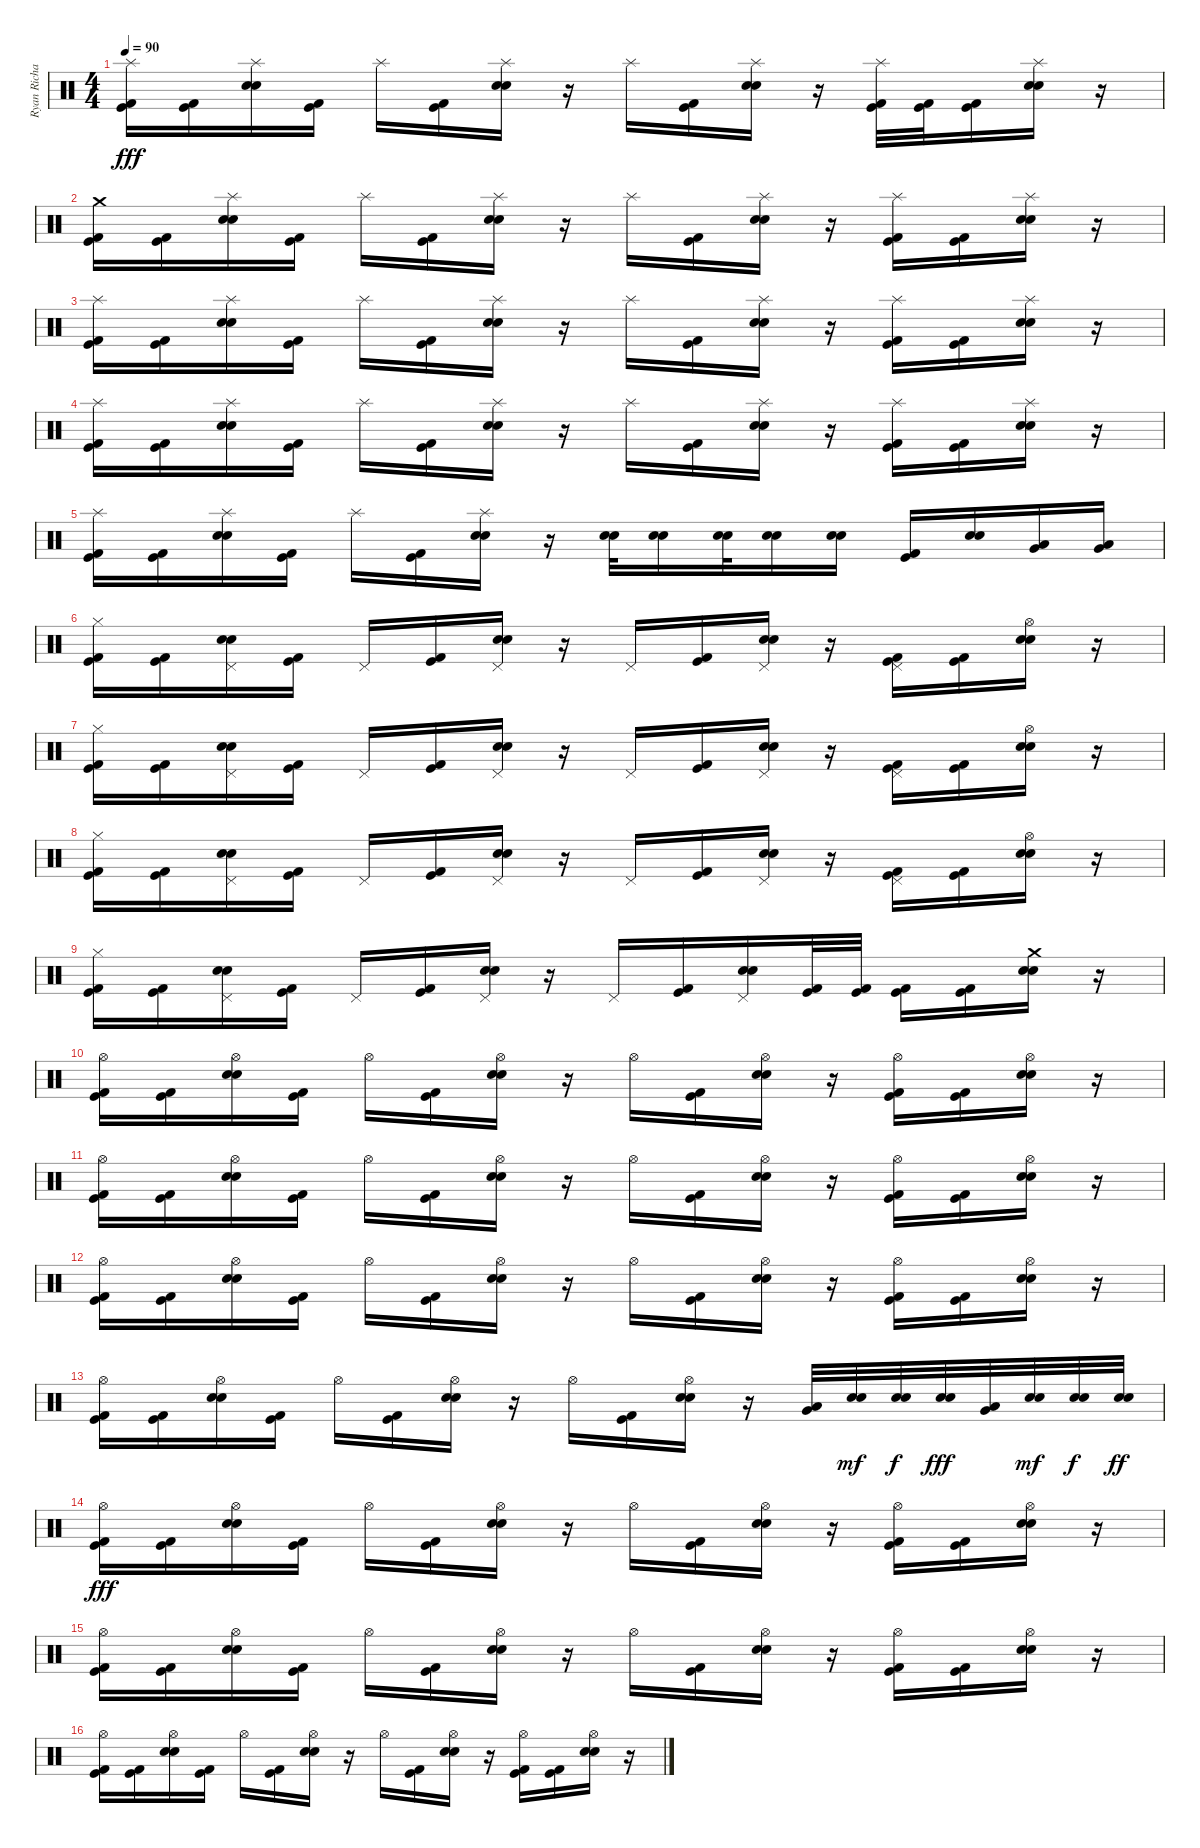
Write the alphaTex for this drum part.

\track ("Ryan Richards" "Ryan Richa") {instrument percussion}
\staff {score}
\articulation defaults
\ts (4 4)
\tempo 90
\clef neutral
\ks c
("Kick (hit)" "Splash (hit)" "Kick (hit) 2").16{dy fff} ("Kick (hit)" "Kick (hit) 2").16 ("Splash (hit)" "Snare (hit) 2" "Electric Snare (hit)").16 ("Kick (hit)" "Kick (hit) 2").16 "Splash (hit)".16 ("Kick (hit)" "Kick (hit) 2").16 ("Splash (hit)" "Snare (hit) 2" "Electric Snare (hit)").16 r.16 "Splash (hit)".16 ("Kick (hit)" "Kick (hit) 2").16 ("Splash (hit)" "Snare (hit) 2" "Electric Snare (hit)").16 r.16 ("Kick (hit)" "Splash (hit)" "Kick (hit) 2").32 ("Kick (hit)" "Kick (hit) 2").32 ("Kick (hit)" "Kick (hit) 2").16 ("Splash (hit)" "Snare (hit) 2" "Electric Snare (hit)").16 r.16 |
("Kick (hit)" "Crash medium (hit)" "Kick (hit) 2").16 ("Kick (hit)" "Kick (hit) 2").16 ("Splash (hit)" "Snare (hit) 2" "Electric Snare (hit)").16 ("Kick (hit)" "Kick (hit) 2").16 "Splash (hit)".16 ("Kick (hit)" "Kick (hit) 2").16 ("Splash (hit)" "Snare (hit) 2" "Electric Snare (hit)").16 r.16 "Splash (hit)".16 ("Kick (hit)" "Kick (hit) 2").16 ("Splash (hit)" "Snare (hit) 2" "Electric Snare (hit)").16 r.16 ("Kick (hit)" "Splash (hit)" "Kick (hit) 2").16 ("Kick (hit)" "Kick (hit) 2").16 ("Splash (hit)" "Snare (hit) 2" "Electric Snare (hit)").16 r.16 |
("Kick (hit)" "Splash (hit)" "Kick (hit) 2").16 ("Kick (hit)" "Kick (hit) 2").16 ("Splash (hit)" "Snare (hit) 2" "Electric Snare (hit)").16 ("Kick (hit)" "Kick (hit) 2").16 "Splash (hit)".16 ("Kick (hit)" "Kick (hit) 2").16 ("Splash (hit)" "Snare (hit) 2" "Electric Snare (hit)").16 r.16 "Splash (hit)".16 ("Kick (hit)" "Kick (hit) 2").16 ("Splash (hit)" "Snare (hit) 2" "Electric Snare (hit)").16 r.16 ("Kick (hit)" "Splash (hit)" "Kick (hit) 2").16 ("Kick (hit)" "Kick (hit) 2").16 ("Splash (hit)" "Snare (hit) 2" "Electric Snare (hit)").16 r.16 |
("Kick (hit)" "Splash (hit)" "Kick (hit) 2").16 ("Kick (hit)" "Kick (hit) 2").16 ("Splash (hit)" "Snare (hit) 2" "Electric Snare (hit)").16 ("Kick (hit)" "Kick (hit) 2").16 "Splash (hit)".16 ("Kick (hit)" "Kick (hit) 2").16 ("Splash (hit)" "Snare (hit) 2" "Electric Snare (hit)").16 r.16 "Splash (hit)".16 ("Kick (hit)" "Kick (hit) 2").16 ("Splash (hit)" "Snare (hit) 2" "Electric Snare (hit)").16 r.16 ("Kick (hit)" "Splash (hit)" "Kick (hit) 2").16 ("Kick (hit)" "Kick (hit) 2").16 ("Splash (hit)" "Snare (hit) 2" "Electric Snare (hit)").16 r.16 |
("Kick (hit)" "Splash (hit)" "Kick (hit) 2").16 ("Kick (hit)" "Kick (hit) 2").16 ("Splash (hit)" "Snare (hit) 2" "Electric Snare (hit)").16 ("Kick (hit)" "Kick (hit) 2").16 "Splash (hit)".16 ("Kick (hit)" "Kick (hit) 2").16 ("Splash (hit)" "Snare (hit) 2" "Electric Snare (hit)").16 r.16 ("Snare (hit) 2" "Electric Snare (hit)").32 ("Snare (hit) 2" "Electric Snare (hit)").16 ("Snare (hit) 2" "Electric Snare (hit)").32 ("Snare (hit) 2" "Electric Snare (hit)").16 ("Snare (hit) 2" "Electric Snare (hit)").16 ("Kick (hit)" "Kick (hit) 2").16 ("Snare (hit) 2" "Electric Snare (hit)").16 ("Very Low Tom (hit)" "Low Floor Tom (hit)").16 ("Very Low Tom (hit)" "Low Floor Tom (hit)").16 |
("Kick (hit)" "Hi-Hat (closed)" "Kick (hit) 2").16 ("Kick (hit)" "Kick (hit) 2").16 ("Pedal Hi-Hat (hit)" "Snare (hit) 2" "Electric Snare (hit)").16 ("Kick (hit)" "Kick (hit) 2").16 "Pedal Hi-Hat (hit)".16 ("Kick (hit)" "Kick (hit) 2").16 ("Pedal Hi-Hat (hit)" "Snare (hit) 2" "Electric Snare (hit)").16 r.16 "Pedal Hi-Hat (hit)".16 ("Kick (hit)" "Kick (hit) 2").16 ("Pedal Hi-Hat (hit)" "Snare (hit) 2" "Electric Snare (hit)").16 r.16 ("Kick (hit)" "Pedal Hi-Hat (hit)" "Kick (hit) 2").16 ("Kick (hit)" "Kick (hit) 2").16 ("Hi-Hat (open)" "Snare (hit) 2" "Electric Snare (hit)").16 r.16 |
("Kick (hit)" "Hi-Hat (closed)" "Kick (hit) 2").16 ("Kick (hit)" "Kick (hit) 2").16 ("Pedal Hi-Hat (hit)" "Snare (hit) 2" "Electric Snare (hit)").16 ("Kick (hit)" "Kick (hit) 2").16 "Pedal Hi-Hat (hit)".16 ("Kick (hit)" "Kick (hit) 2").16 ("Pedal Hi-Hat (hit)" "Snare (hit) 2" "Electric Snare (hit)").16 r.16 "Pedal Hi-Hat (hit)".16 ("Kick (hit)" "Kick (hit) 2").16 ("Pedal Hi-Hat (hit)" "Snare (hit) 2" "Electric Snare (hit)").16 r.16 ("Kick (hit)" "Pedal Hi-Hat (hit)" "Kick (hit) 2").16 ("Kick (hit)" "Kick (hit) 2").16 ("Hi-Hat (open)" "Snare (hit) 2" "Electric Snare (hit)").16 r.16 |
("Kick (hit)" "Hi-Hat (closed)" "Kick (hit) 2").16 ("Kick (hit)" "Kick (hit) 2").16 ("Pedal Hi-Hat (hit)" "Snare (hit) 2" "Electric Snare (hit)").16 ("Kick (hit)" "Kick (hit) 2").16 "Pedal Hi-Hat (hit)".16 ("Kick (hit)" "Kick (hit) 2").16 ("Pedal Hi-Hat (hit)" "Snare (hit) 2" "Electric Snare (hit)").16 r.16 "Pedal Hi-Hat (hit)".16 ("Kick (hit)" "Kick (hit) 2").16 ("Pedal Hi-Hat (hit)" "Snare (hit) 2" "Electric Snare (hit)").16 r.16 ("Kick (hit)" "Pedal Hi-Hat (hit)" "Kick (hit) 2").16 ("Kick (hit)" "Kick (hit) 2").16 ("Hi-Hat (open)" "Snare (hit) 2" "Electric Snare (hit)").16 r.16 |
("Kick (hit)" "Hi-Hat (closed)" "Kick (hit) 2").16 ("Kick (hit)" "Kick (hit) 2").16 ("Pedal Hi-Hat (hit)" "Snare (hit) 2" "Electric Snare (hit)").16 ("Kick (hit)" "Kick (hit) 2").16 "Pedal Hi-Hat (hit)".16 ("Kick (hit)" "Kick (hit) 2").16 ("Pedal Hi-Hat (hit)" "Snare (hit) 2" "Electric Snare (hit)").16 r.16 "Pedal Hi-Hat (hit)".16 ("Kick (hit)" "Kick (hit) 2").16 ("Pedal Hi-Hat (hit)" "Snare (hit) 2" "Electric Snare (hit)").16 ("Kick (hit)" "Kick (hit) 2").32 ("Kick (hit)" "Kick (hit) 2").32 ("Kick (hit)" "Kick (hit) 2").16 ("Kick (hit)" "Kick (hit) 2").16 ("Crash medium (hit)" "Snare (hit) 2" "Electric Snare (hit)").16 r.16 |
("Kick (hit)" "Hi-Hat (open)" "Kick (hit) 2").16 ("Kick (hit)" "Kick (hit) 2").16 ("Hi-Hat (open)" "Snare (hit) 2" "Electric Snare (hit)").16 ("Kick (hit)" "Kick (hit) 2").16 "Hi-Hat (open)".16 ("Kick (hit)" "Kick (hit) 2").16 ("Hi-Hat (open)" "Snare (hit) 2" "Electric Snare (hit)").16 r.16 "Hi-Hat (open)".16 ("Kick (hit)" "Kick (hit) 2").16 ("Hi-Hat (open)" "Snare (hit) 2" "Electric Snare (hit)").16 r.16 ("Kick (hit)" "Hi-Hat (open)" "Kick (hit) 2").16 ("Kick (hit)" "Kick (hit) 2").16 ("Hi-Hat (open)" "Snare (hit) 2" "Electric Snare (hit)").16 r.16 |
("Kick (hit)" "Hi-Hat (open)" "Kick (hit) 2").16 ("Kick (hit)" "Kick (hit) 2").16 ("Hi-Hat (open)" "Snare (hit) 2" "Electric Snare (hit)").16 ("Kick (hit)" "Kick (hit) 2").16 "Hi-Hat (open)".16 ("Kick (hit)" "Kick (hit) 2").16 ("Hi-Hat (open)" "Snare (hit) 2" "Electric Snare (hit)").16 r.16 "Hi-Hat (open)".16 ("Kick (hit)" "Kick (hit) 2").16 ("Hi-Hat (open)" "Snare (hit) 2" "Electric Snare (hit)").16 r.16 ("Kick (hit)" "Hi-Hat (open)" "Kick (hit) 2").16 ("Kick (hit)" "Kick (hit) 2").16 ("Hi-Hat (open)" "Snare (hit) 2" "Electric Snare (hit)").16 r.16 |
("Kick (hit)" "Hi-Hat (open)" "Kick (hit) 2").16 ("Kick (hit)" "Kick (hit) 2").16 ("Hi-Hat (open)" "Snare (hit) 2" "Electric Snare (hit)").16 ("Kick (hit)" "Kick (hit) 2").16 "Hi-Hat (open)".16 ("Kick (hit)" "Kick (hit) 2").16 ("Hi-Hat (open)" "Snare (hit) 2" "Electric Snare (hit)").16 r.16 "Hi-Hat (open)".16 ("Kick (hit)" "Kick (hit) 2").16 ("Hi-Hat (open)" "Snare (hit) 2" "Electric Snare (hit)").16 r.16 ("Kick (hit)" "Hi-Hat (open)" "Kick (hit) 2").16 ("Kick (hit)" "Kick (hit) 2").16 ("Hi-Hat (open)" "Snare (hit) 2" "Electric Snare (hit)").16 r.16 |
("Kick (hit)" "Hi-Hat (open)" "Kick (hit) 2").16 ("Kick (hit)" "Kick (hit) 2").16 ("Hi-Hat (open)" "Snare (hit) 2" "Electric Snare (hit)").16 ("Kick (hit)" "Kick (hit) 2").16 "Hi-Hat (open)".16 ("Kick (hit)" "Kick (hit) 2").16 ("Hi-Hat (open)" "Snare (hit) 2" "Electric Snare (hit)").16 r.16 "Hi-Hat (open)".16 ("Kick (hit)" "Kick (hit) 2").16 ("Hi-Hat (open)" "Snare (hit) 2" "Electric Snare (hit)").16 r.16 ("Very Low Tom (hit)" "Low Floor Tom (hit)").32 ("Snare (hit) 2" "Electric Snare (hit)").32{dy mf} ("Snare (hit) 2" "Electric Snare (hit)").32{dy f} ("Snare (hit) 2" "Electric Snare (hit)").32{dy fff} ("Very Low Tom (hit)" "Low Floor Tom (hit)").32 ("Snare (hit) 2" "Electric Snare (hit)").32{dy mf} ("Snare (hit) 2" "Electric Snare (hit)").32{dy f} ("Snare (hit) 2" "Electric Snare (hit)").32{dy ff} |
("Kick (hit)" "Hi-Hat (open)" "Kick (hit) 2").16{dy fff} ("Kick (hit)" "Kick (hit) 2").16 ("Hi-Hat (open)" "Snare (hit) 2" "Electric Snare (hit)").16 ("Kick (hit)" "Kick (hit) 2").16 "Hi-Hat (open)".16 ("Kick (hit)" "Kick (hit) 2").16 ("Hi-Hat (open)" "Snare (hit) 2" "Electric Snare (hit)").16 r.16 "Hi-Hat (open)".16 ("Kick (hit)" "Kick (hit) 2").16 ("Hi-Hat (open)" "Snare (hit) 2" "Electric Snare (hit)").16 r.16 ("Kick (hit)" "Hi-Hat (open)" "Kick (hit) 2").16 ("Kick (hit)" "Kick (hit) 2").16 ("Hi-Hat (open)" "Snare (hit) 2" "Electric Snare (hit)").16 r.16 |
("Kick (hit)" "Hi-Hat (open)" "Kick (hit) 2").16 ("Kick (hit)" "Kick (hit) 2").16 ("Hi-Hat (open)" "Snare (hit) 2" "Electric Snare (hit)").16 ("Kick (hit)" "Kick (hit) 2").16 "Hi-Hat (open)".16 ("Kick (hit)" "Kick (hit) 2").16 ("Hi-Hat (open)" "Snare (hit) 2" "Electric Snare (hit)").16 r.16 "Hi-Hat (open)".16 ("Kick (hit)" "Kick (hit) 2").16 ("Hi-Hat (open)" "Snare (hit) 2" "Electric Snare (hit)").16 r.16 ("Kick (hit)" "Hi-Hat (open)" "Kick (hit) 2").16 ("Kick (hit)" "Kick (hit) 2").16 ("Hi-Hat (open)" "Snare (hit) 2" "Electric Snare (hit)").16 r.16 |
("Kick (hit)" "Hi-Hat (open)" "Kick (hit) 2").16 ("Kick (hit)" "Kick (hit) 2").16 ("Hi-Hat (open)" "Snare (hit) 2" "Electric Snare (hit)").16 ("Kick (hit)" "Kick (hit) 2").16 "Hi-Hat (open)".16 ("Kick (hit)" "Kick (hit) 2").16 ("Hi-Hat (open)" "Snare (hit) 2" "Electric Snare (hit)").16 r.16 "Hi-Hat (open)".16 ("Kick (hit)" "Kick (hit) 2").16 ("Hi-Hat (open)" "Snare (hit) 2" "Electric Snare (hit)").16 r.16 ("Kick (hit)" "Hi-Hat (open)" "Kick (hit) 2").16 ("Kick (hit)" "Kick (hit) 2").16 ("Hi-Hat (open)" "Snare (hit) 2" "Electric Snare (hit)").16 r.16
